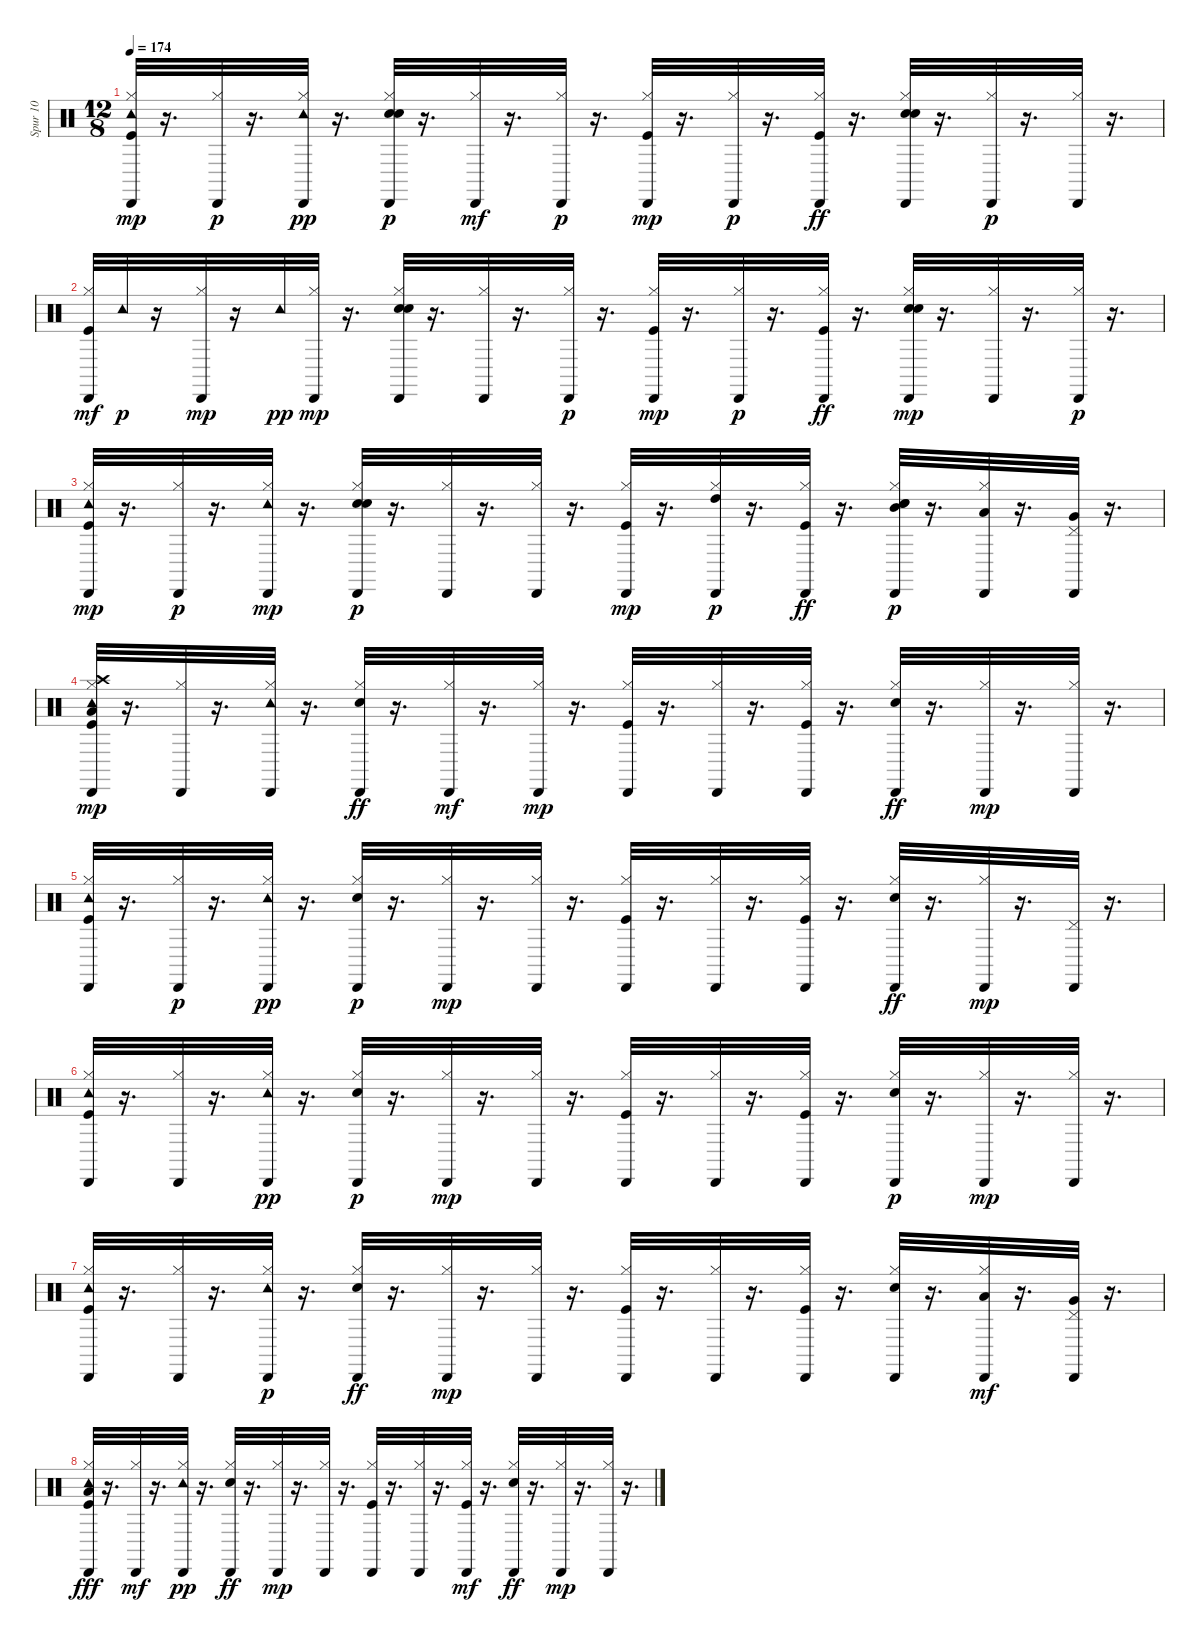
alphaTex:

\track ("Spur 10" "Spur 10") {instrument percussion}
\staff {score}
\articulation defaults
\ts (12 8)
\tempo 174
\clef neutral
\ks c
("Tambourine (hit)" "Hi-Hat (closed)" "Kick (hit)" "Cabasa (hit)").32{dy mp} r.16{d} ("Hi-Hat (closed)" "Cabasa (hit)").32{dy p} r.16{d} ("Hi-Hat (closed)" "Cabasa (hit)" "Tambourine (hit)").32{dy pp} r.16{d} ("Hi-Hat (closed)" "Electric Snare (hit)" "Hand Clap (hit)" "Cabasa (hit)").32{dy p} r.16{d} ("Cabasa (hit)" "Hi-Hat (closed)").32{dy mf} r.16{d} ("Hi-Hat (closed)" "Cabasa (hit)").32{dy p} r.16{d} ("Kick (hit)" "Cabasa (hit)" "Hi-Hat (closed)").32{dy mp} r.16{d} ("Hi-Hat (closed)" "Cabasa (hit)").32{dy p} r.16{d} ("Hi-Hat (closed)" "Cabasa (hit)" "Kick (hit)").32{dy ff} r.16{d} ("Hi-Hat (closed)" "Cabasa (hit)" "Hand Clap (hit)" "Electric Snare (hit)").32 r.16{d} ("Hi-Hat (closed)" "Cabasa (hit)").32{dy p} r.16{d} ("Hi-Hat (closed)" "Cabasa (hit)").32 r.16{d} |
("Kick (hit)" "Cabasa (hit)" "Hi-Hat (closed)").32{dy mf} "Tambourine (hit)".32{dy p} r.16 ("Cabasa (hit)" "Hi-Hat (closed)").32{dy mp} r.16 "Tambourine (hit)".32{dy pp} ("Cabasa (hit)" "Hi-Hat (closed)").32{dy mp} r.16{d} ("Hand Clap (hit)" "Cabasa (hit)" "Electric Snare (hit)" "Hi-Hat (closed)").32 r.16{d} ("Cabasa (hit)" "Hi-Hat (closed)").32 r.16{d} ("Cabasa (hit)" "Hi-Hat (closed)").32{dy p} r.16{d} ("Hi-Hat (closed)" "Kick (hit)" "Cabasa (hit)").32{dy mp} r.16{d} ("Hi-Hat (closed)" "Cabasa (hit)").32{dy p} r.16{d} ("Hi-Hat (closed)" "Cabasa (hit)" "Kick (hit)").32{dy ff} r.16{d} ("Hand Clap (hit)" "Hi-Hat (closed)" "Electric Snare (hit)" "Cabasa (hit)").32{dy mp} r.16{d} ("Hi-Hat (closed)" "Cabasa (hit)").32 r.16{d} ("Hi-Hat (closed)" "Cabasa (hit)").32{dy p} r.16{d} |
("Tambourine (hit)" "Hi-Hat (closed)" "Kick (hit)" "Cabasa (hit)").32{dy mp} r.16{d} ("Hi-Hat (closed)" "Cabasa (hit)").32{dy p} r.16{d} ("Tambourine (hit)" "Hi-Hat (closed)" "Cabasa (hit)").32{dy mp} r.16{d} ("Hi-Hat (closed)" "Electric Snare (hit)" "Hand Clap (hit)" "Cabasa (hit)").32{dy p} r.16{d} ("Hi-Hat (closed)" "Cabasa (hit)").32 r.16{d} ("Hi-Hat (closed)" "Cabasa (hit)").32 r.16{d} ("Hi-Hat (closed)" "Kick (hit)" "Cabasa (hit)").32{dy mp} r.16{d} ("Hi-Hat (closed)" "Cabasa (hit)" "High Tom (hit)").32{dy p} r.16{d} ("Hi-Hat (closed)" "Cabasa (hit)" "Kick (hit)").32{dy ff} r.16{d} ("Mid Tom (hit)" "Hand Clap (hit)" "Hi-Hat (closed)" "Electric Snare (hit)" "Cabasa (hit)").32{dy p} r.16{d} ("Low Tom (hit)" "Hi-Hat (closed)" "Cabasa (hit)").32 r.16{d} ("Very Low Tom (hit)" "Pedal Hi-Hat (hit)" "Cabasa (hit)").32 r.16{d} |
("Hi-Hat (closed)" "Kick (hit)" "Low Floor Tom (hit)" "Crash high (hit)" "Tambourine (hit)" "Cabasa (hit)").32{dy mp} r.16{d} ("Cabasa (hit)" "Hi-Hat (closed)").32 r.16{d} ("Tambourine (hit)" "Hi-Hat (closed)" "Cabasa (hit)").32 r.16{d} ("Cabasa (hit)" "Hi-Hat (closed)" "Electric Snare (hit)").32{dy ff} r.16{d} ("Cabasa (hit)" "Hi-Hat (closed)").32{dy mf} r.16{d} ("Hi-Hat (closed)" "Cabasa (hit)").32{dy mp} r.16{d} ("Kick (hit)" "Hi-Hat (closed)" "Cabasa (hit)").32 r.16{d} ("Cabasa (hit)" "Hi-Hat (closed)").32 r.16{d} ("Kick (hit)" "Hi-Hat (closed)" "Cabasa (hit)").32 r.16{d} ("Cabasa (hit)" "Hi-Hat (closed)" "Electric Snare (hit)").32{dy ff} r.16{d} ("Hi-Hat (closed)" "Cabasa (hit)").32{dy mp} r.16{d} ("Hi-Hat (closed)" "Cabasa (hit)").32 r.16{d} |
("Hi-Hat (closed)" "Kick (hit)" "Tambourine (hit)" "Cabasa (hit)").32 r.16{d} ("Hi-Hat (closed)" "Cabasa (hit)").32{dy p} r.16{d} ("Hi-Hat (closed)" "Cabasa (hit)" "Tambourine (hit)").32{dy pp} r.16{d} ("Hi-Hat (closed)" "Electric Snare (hit)" "Cabasa (hit)").32{dy p} r.16{d} ("Hi-Hat (closed)" "Cabasa (hit)").32{dy mp} r.16{d} ("Hi-Hat (closed)" "Cabasa (hit)").32 r.16{d} ("Hi-Hat (closed)" "Kick (hit)" "Cabasa (hit)").32 r.16{d} ("Cabasa (hit)" "Hi-Hat (closed)").32 r.16{d} ("Hi-Hat (closed)" "Cabasa (hit)" "Kick (hit)").32 r.16{d} ("Hi-Hat (closed)" "Cabasa (hit)" "Electric Snare (hit)").32{dy ff} r.16{d} ("Hi-Hat (closed)" "Cabasa (hit)").32{dy mp} r.16{d} ("Pedal Hi-Hat (hit)" "Cabasa (hit)").32 r.16{d} |
("Tambourine (hit)" "Hi-Hat (closed)" "Cabasa (hit)" "Kick (hit)").32 r.16{d} ("Hi-Hat (closed)" "Cabasa (hit)").32 r.16{d} ("Hi-Hat (closed)" "Cabasa (hit)" "Tambourine (hit)").32{dy pp} r.16{d} ("Hi-Hat (closed)" "Electric Snare (hit)" "Cabasa (hit)").32{dy p} r.16{d} ("Hi-Hat (closed)" "Cabasa (hit)").32{dy mp} r.16{d} ("Hi-Hat (closed)" "Cabasa (hit)").32 r.16{d} ("Kick (hit)" "Cabasa (hit)" "Hi-Hat (closed)").32 r.16{d} ("Cabasa (hit)" "Hi-Hat (closed)").32 r.16{d} ("Hi-Hat (closed)" "Kick (hit)" "Cabasa (hit)").32 r.16{d} ("Hi-Hat (closed)" "Electric Snare (hit)" "Cabasa (hit)").32{dy p} r.16{d} ("Hi-Hat (closed)" "Cabasa (hit)").32{dy mp} r.16{d} ("Hi-Hat (closed)" "Cabasa (hit)").32 r.16{d} |
("Tambourine (hit)" "Kick (hit)" "Cabasa (hit)" "Hi-Hat (closed)").32 r.16{d} ("Cabasa (hit)" "Hi-Hat (closed)").32 r.16{d} ("Hi-Hat (closed)" "Tambourine (hit)" "Cabasa (hit)").32{dy p} r.16{d} ("Hi-Hat (closed)" "Cabasa (hit)" "Electric Snare (hit)").32{dy ff} r.16{d} ("Hi-Hat (closed)" "Cabasa (hit)").32{dy mp} r.16{d} ("Hi-Hat (closed)" "Cabasa (hit)").32 r.16{d} ("Kick (hit)" "Hi-Hat (closed)" "Cabasa (hit)").32 r.16{d} ("Cabasa (hit)" "Hi-Hat (closed)").32 r.16{d} ("Hi-Hat (closed)" "Kick (hit)" "Cabasa (hit)").32 r.16{d} ("Electric Snare (hit)" "Hi-Hat (closed)" "Cabasa (hit)").32 r.16{d} ("Cabasa (hit)" "Hi-Hat (closed)" "Low Tom (hit)").32{dy mf} r.16{d} ("Very Low Tom (hit)" "Cabasa (hit)" "Pedal Hi-Hat (hit)").32 r.16{d} |
("Tambourine (hit)" "Cabasa (hit)" "Hi-Hat (closed)" "Kick (hit)" "Low Floor Tom (hit)").32{dy fff} r.16{d} ("Cabasa (hit)" "Hi-Hat (closed)").32{dy mf} r.16{d} ("Hi-Hat (closed)" "Cabasa (hit)" "Tambourine (hit)").32{dy pp} r.16{d} ("Hi-Hat (closed)" "Cabasa (hit)" "Electric Snare (hit)").32{dy ff} r.16{d} ("Hi-Hat (closed)" "Cabasa (hit)").32{dy mp} r.16{d} ("Hi-Hat (closed)" "Cabasa (hit)").32 r.16{d} ("Kick (hit)" "Cabasa (hit)" "Hi-Hat (closed)").32 r.16{d} ("Hi-Hat (closed)" "Cabasa (hit)").32 r.16{d} ("Cabasa (hit)" "Hi-Hat (closed)" "Kick (hit)").32{dy mf} r.16{d} ("Cabasa (hit)" "Hi-Hat (closed)" "Electric Snare (hit)").32{dy ff} r.16{d} ("Hi-Hat (closed)" "Cabasa (hit)").32{dy mp} r.16{d} ("Hi-Hat (closed)" "Cabasa (hit)").32 r.16{d}
